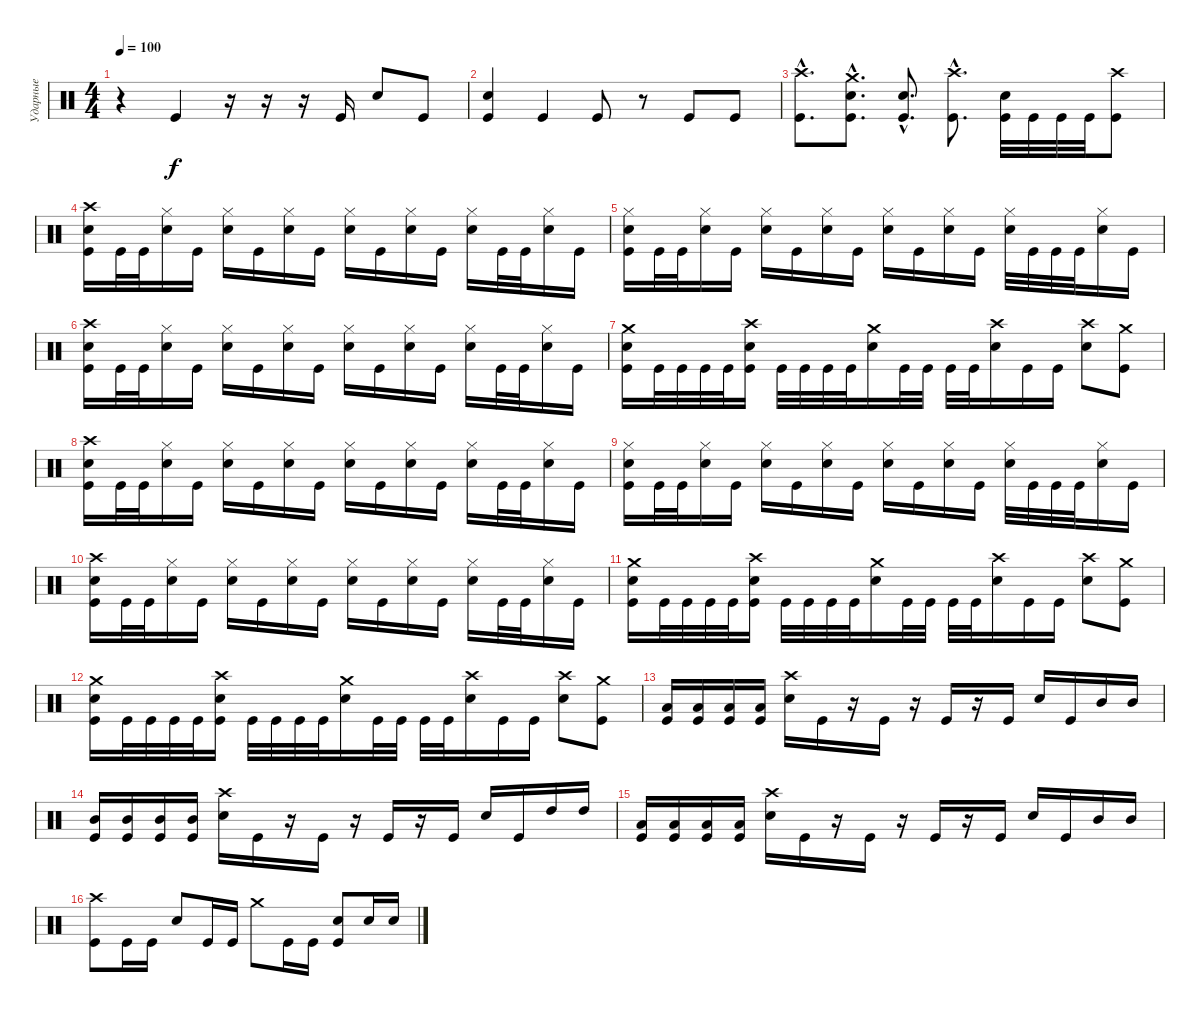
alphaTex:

\track ("Ударные" "Ударные") {instrument percussion}
\staff {score}
\articulation defaults
\ts (4 4)
\tempo 100
\clef neutral
\ks c
r.4{dy f} "Kick (hit)".4 r.16 r.16 r.16 "Kick (hit)".16 "Electric Snare (hit)".8 "Kick (hit)".8 |
("Electric Snare (hit)" "Kick (hit)").4 "Kick (hit)".4 "Kick (hit)".8 r.8 "Kick (hit)".8 "Kick (hit)".8 |
("Crash high (hit)"{hac} "Kick (hit)"{hac}).8{d} ("Crash medium (hit)"{hac} "Electric Snare (hit)"{hac} "Kick (hit)"{hac}).8{d} ("Electric Snare (hit)"{hac} "Kick (hit)"{hac}).8{d} ("Crash high (hit)"{hac} "Kick (hit)"{hac}).8{d} ("Electric Snare (hit)" "Kick (hit)").32 "Kick (hit)".32 "Kick (hit)".32 "Kick (hit)".32 ("Crash high (hit)" "Kick (hit)").8 |
("Crash high (hit)" "Electric Snare (hit)" "Kick (hit)").16 "Kick (hit)".32 "Kick (hit)".32 ("Hi-Hat (closed)" "Electric Snare (hit)").16 "Kick (hit)".16 ("Hi-Hat (closed)" "Electric Snare (hit)").16 "Kick (hit)".16 ("Hi-Hat (closed)" "Electric Snare (hit)").16 "Kick (hit)".16 ("Hi-Hat (closed)" "Electric Snare (hit)").16 "Kick (hit)".16 ("Hi-Hat (closed)" "Electric Snare (hit)").16 "Kick (hit)".16 ("Hi-Hat (closed)" "Electric Snare (hit)").16 "Kick (hit)".32 "Kick (hit)".32 ("Hi-Hat (closed)" "Electric Snare (hit)").16 "Kick (hit)".16 |
("Hi-Hat (closed)" "Electric Snare (hit)" "Kick (hit)").16 "Kick (hit)".32 "Kick (hit)".32 ("Hi-Hat (closed)" "Electric Snare (hit)").16 "Kick (hit)".16 ("Hi-Hat (closed)" "Electric Snare (hit)").16 "Kick (hit)".16 ("Hi-Hat (closed)" "Electric Snare (hit)").16 "Kick (hit)".16 ("Hi-Hat (closed)" "Electric Snare (hit)").16 "Kick (hit)".16 ("Hi-Hat (closed)" "Electric Snare (hit)").16 "Kick (hit)".16 ("Hi-Hat (closed)" "Electric Snare (hit)").32 "Kick (hit)".32 "Kick (hit)".32 "Kick (hit)".32 ("Hi-Hat (closed)" "Electric Snare (hit)").16 "Kick (hit)".16 |
("Crash high (hit)" "Electric Snare (hit)" "Kick (hit)").16 "Kick (hit)".32 "Kick (hit)".32 ("Hi-Hat (closed)" "Electric Snare (hit)").16 "Kick (hit)".16 ("Hi-Hat (closed)" "Electric Snare (hit)").16 "Kick (hit)".16 ("Hi-Hat (closed)" "Electric Snare (hit)").16 "Kick (hit)".16 ("Hi-Hat (closed)" "Electric Snare (hit)").16 "Kick (hit)".16 ("Hi-Hat (closed)" "Electric Snare (hit)").16 "Kick (hit)".16 ("Hi-Hat (closed)" "Electric Snare (hit)").16 "Kick (hit)".32 "Kick (hit)".32 ("Hi-Hat (closed)" "Electric Snare (hit)").16 "Kick (hit)".16 |
("Crash medium (hit)" "Electric Snare (hit)" "Kick (hit)").16 "Kick (hit)".32 "Kick (hit)".32 "Kick (hit)".32 "Kick (hit)".32 ("Crash high (hit)" "Electric Snare (hit)" "Kick (hit)").16 "Kick (hit)".32 "Kick (hit)".32 "Kick (hit)".32 "Kick (hit)".32 ("Crash medium (hit)" "Electric Snare (hit)").16 "Kick (hit)".32 "Kick (hit)".32 "Kick (hit)".32 "Kick (hit)".32 ("Crash high (hit)" "Electric Snare (hit)").16 "Kick (hit)".16 "Kick (hit)".16 ("Crash high (hit)" "Electric Snare (hit)").8 ("Crash medium (hit)" "Kick (hit)").8 |
("Crash high (hit)" "Electric Snare (hit)" "Kick (hit)").16 "Kick (hit)".32 "Kick (hit)".32 ("Hi-Hat (closed)" "Electric Snare (hit)").16 "Kick (hit)".16 ("Hi-Hat (closed)" "Electric Snare (hit)").16 "Kick (hit)".16 ("Hi-Hat (closed)" "Electric Snare (hit)").16 "Kick (hit)".16 ("Hi-Hat (closed)" "Electric Snare (hit)").16 "Kick (hit)".16 ("Hi-Hat (closed)" "Electric Snare (hit)").16 "Kick (hit)".16 ("Hi-Hat (closed)" "Electric Snare (hit)").16 "Kick (hit)".32 "Kick (hit)".32 ("Hi-Hat (closed)" "Electric Snare (hit)").16 "Kick (hit)".16 |
("Hi-Hat (closed)" "Electric Snare (hit)" "Kick (hit)").16 "Kick (hit)".32 "Kick (hit)".32 ("Hi-Hat (closed)" "Electric Snare (hit)").16 "Kick (hit)".16 ("Hi-Hat (closed)" "Electric Snare (hit)").16 "Kick (hit)".16 ("Hi-Hat (closed)" "Electric Snare (hit)").16 "Kick (hit)".16 ("Hi-Hat (closed)" "Electric Snare (hit)").16 "Kick (hit)".16 ("Hi-Hat (closed)" "Electric Snare (hit)").16 "Kick (hit)".16 ("Hi-Hat (closed)" "Electric Snare (hit)").32 "Kick (hit)".32 "Kick (hit)".32 "Kick (hit)".32 ("Hi-Hat (closed)" "Electric Snare (hit)").16 "Kick (hit)".16 |
("Crash high (hit)" "Electric Snare (hit)" "Kick (hit)").16 "Kick (hit)".32 "Kick (hit)".32 ("Hi-Hat (closed)" "Electric Snare (hit)").16 "Kick (hit)".16 ("Hi-Hat (closed)" "Electric Snare (hit)").16 "Kick (hit)".16 ("Hi-Hat (closed)" "Electric Snare (hit)").16 "Kick (hit)".16 ("Hi-Hat (closed)" "Electric Snare (hit)").16 "Kick (hit)".16 ("Hi-Hat (closed)" "Electric Snare (hit)").16 "Kick (hit)".16 ("Hi-Hat (closed)" "Electric Snare (hit)").16 "Kick (hit)".32 "Kick (hit)".32 ("Hi-Hat (closed)" "Electric Snare (hit)").16 "Kick (hit)".16 |
("Crash medium (hit)" "Electric Snare (hit)" "Kick (hit)").16 "Kick (hit)".32 "Kick (hit)".32 "Kick (hit)".32 "Kick (hit)".32 ("Crash high (hit)" "Electric Snare (hit)" "Kick (hit)").16 "Kick (hit)".32 "Kick (hit)".32 "Kick (hit)".32 "Kick (hit)".32 ("Crash medium (hit)" "Electric Snare (hit)").16 "Kick (hit)".32 "Kick (hit)".32 "Kick (hit)".32 "Kick (hit)".32 ("Crash high (hit)" "Electric Snare (hit)").16 "Kick (hit)".16 "Kick (hit)".16 ("Crash high (hit)" "Electric Snare (hit)").8 ("Crash medium (hit)" "Kick (hit)").8 |
("Crash medium (hit)" "Electric Snare (hit)" "Kick (hit)").16 "Kick (hit)".32 "Kick (hit)".32 "Kick (hit)".32 "Kick (hit)".32 ("Crash high (hit)" "Electric Snare (hit)" "Kick (hit)").16 "Kick (hit)".32 "Kick (hit)".32 "Kick (hit)".32 "Kick (hit)".32 ("Crash medium (hit)" "Electric Snare (hit)").16 "Kick (hit)".32 "Kick (hit)".32 "Kick (hit)".32 "Kick (hit)".32 ("Crash high (hit)" "Electric Snare (hit)").16 "Kick (hit)".16 "Kick (hit)".16 ("Crash high (hit)" "Electric Snare (hit)").8 ("Crash medium (hit)" "Kick (hit)").8 |
("Low Tom (hit)" "Kick (hit)").16 ("Low Tom (hit)" "Kick (hit)").16 ("Low Tom (hit)" "Kick (hit)").16 ("Low Tom (hit)" "Kick (hit)").16 ("Crash high (hit)" "Electric Snare (hit)").16 "Kick (hit)".16 r.16 "Kick (hit)".16 r.16 "Kick (hit)".16 r.16 "Kick (hit)".16 "Electric Snare (hit)".16 "Kick (hit)".16 "Mid Tom (hit)".16 "Mid Tom (hit)".16 |
("Mid Tom (hit)" "Kick (hit)").16 ("Mid Tom (hit)" "Kick (hit)").16 ("Mid Tom (hit)" "Kick (hit)").16 ("Mid Tom (hit)" "Kick (hit)").16 ("Crash high (hit)" "Electric Snare (hit)").16 "Kick (hit)".16 r.16 "Kick (hit)".16 r.16 "Kick (hit)".16 r.16 "Kick (hit)".16 "Electric Snare (hit)".16 "Kick (hit)".16 "High Tom (hit)".16 "High Tom (hit)".16 |
("Low Tom (hit)" "Kick (hit)").16 ("Low Tom (hit)" "Kick (hit)").16 ("Low Tom (hit)" "Kick (hit)").16 ("Low Tom (hit)" "Kick (hit)").16 ("Crash high (hit)" "Electric Snare (hit)").16 "Kick (hit)".16 r.16 "Kick (hit)".16 r.16 "Kick (hit)".16 r.16 "Kick (hit)".16 "Electric Snare (hit)".16 "Kick (hit)".16 "Mid Tom (hit)".16 "Mid Tom (hit)".16 |
("Crash high (hit)" "Kick (hit)").8 "Kick (hit)".16 "Kick (hit)".16 "Electric Snare (hit)".8 "Kick (hit)".16 "Kick (hit)".16 "Crash medium (hit)".8 "Kick (hit)".16 "Kick (hit)".16 ("Electric Snare (hit)" "Kick (hit)").8 "Electric Snare (hit)".16 "Electric Snare (hit)".16
